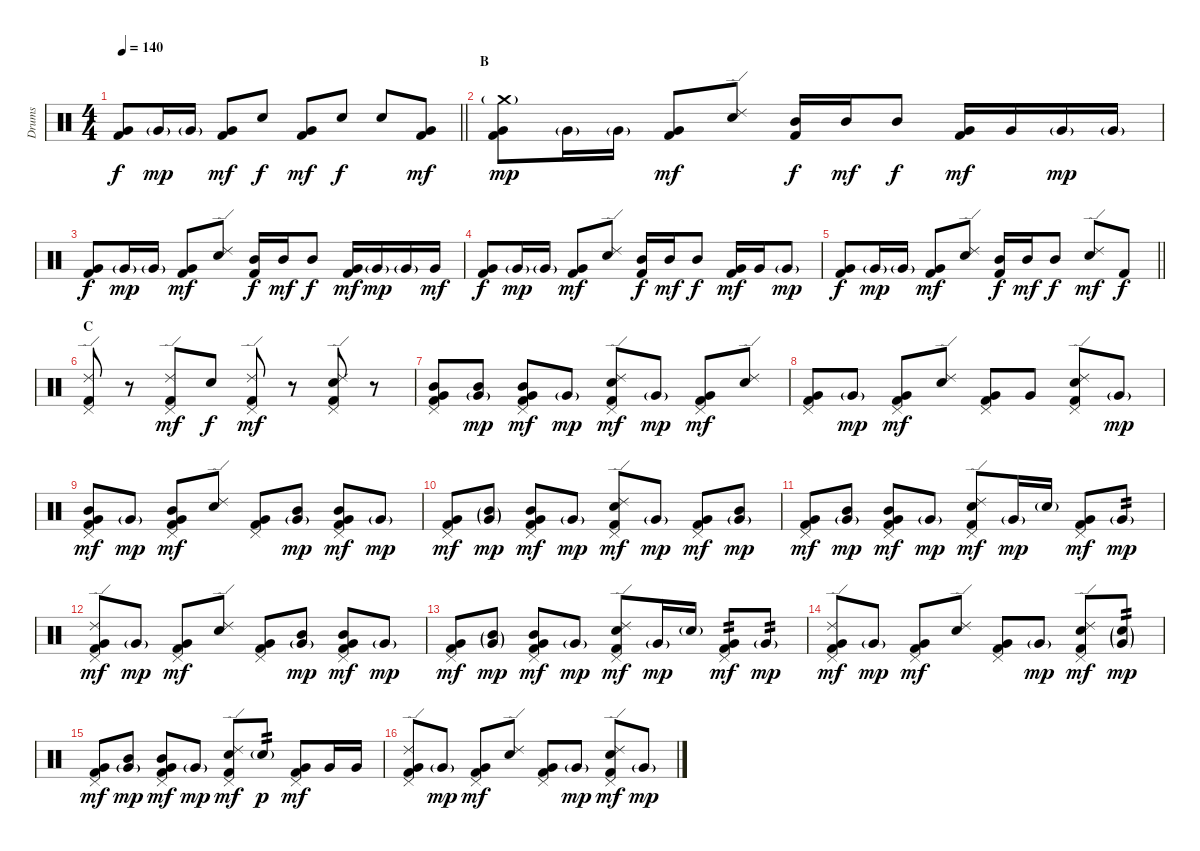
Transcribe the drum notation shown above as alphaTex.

\track ("Drums" "Drums") {instrument percussion}
\staff {score}
\articulation defaults
\ts (4 4)
\tempo 140
\clef neutral
\barLineRight lightlight
\ks c
("Very Low Tom (hit)" "Kick (hit) 2").8{dy f} "Very Low Tom (hit)"{g}.16{dy mp} "Very Low Tom (hit)"{g}.16 ("Very Low Tom (hit)" "Kick (hit) 2").8{dy mf} "Snare (hit) 2".8{dy f} ("Very Low Tom (hit)" "Kick (hit) 2").8{dy mf} "Snare (hit) 2".8{dy f} "Snare (hit) 2".8 ("Very Low Tom (hit)" "Kick (hit) 2").8{dy mf} |
\section ("" "B")
("Crash medium (hit)"{g} "Very Low Tom (hit)" "Kick (hit) 2").8{dy mp} "Very Low Tom (hit)"{g}.16 "Very Low Tom (hit)"{g}.16 ("Very Low Tom (hit)" "Kick (hit) 2").8{dy mf} ("Ride (edge) 2" "Snare (hit) 2").8 ("Mid Tom (hit)" "Kick (hit) 2").16{dy f} "Mid Tom (hit)".16{dy mf} "Mid Tom (hit)".8{dy f} ("Very Low Tom (hit)" "Kick (hit) 2").16{dy mf} "Very Low Tom (hit)".16 "Very Low Tom (hit)"{g}.16{dy mp} "Very Low Tom (hit)"{g}.16 |
("Very Low Tom (hit)" "Kick (hit) 2").8{dy f} "Very Low Tom (hit)"{g}.16{dy mp} "Very Low Tom (hit)"{g}.16 ("Very Low Tom (hit)" "Kick (hit) 2").8{dy mf} ("Ride (edge) 2" "Snare (hit) 2").8 ("Mid Tom (hit)" "Kick (hit) 2").16{dy f} "Mid Tom (hit)".16{dy mf} "Mid Tom (hit)".8{dy f} ("Very Low Tom (hit)" "Kick (hit) 2").16{dy mf} "Very Low Tom (hit)"{g}.16{dy mp} "Very Low Tom (hit)"{g}.16 "Very Low Tom (hit)".16{dy mf} |
("Very Low Tom (hit)" "Kick (hit) 2").8{dy f} "Very Low Tom (hit)"{g}.16{dy mp} "Very Low Tom (hit)"{g}.16 ("Very Low Tom (hit)" "Kick (hit) 2").8{dy mf} ("Ride (edge) 2" "Snare (hit) 2").8 ("Mid Tom (hit)" "Kick (hit) 2").16{dy f} "Mid Tom (hit)".16{dy mf} "Mid Tom (hit)".8{dy f} ("Very Low Tom (hit)" "Kick (hit) 2").16{dy mf} "Very Low Tom (hit)".16 "Very Low Tom (hit)"{g}.8{dy mp} |
\barLineRight lightlight
("Very Low Tom (hit)" "Kick (hit) 2").8{dy f} "Very Low Tom (hit)"{g}.16{dy mp} "Very Low Tom (hit)"{g}.16 ("Very Low Tom (hit)" "Kick (hit) 2").8{dy mf} ("Ride (edge) 2" "Snare (hit) 2").8 ("Mid Tom (hit)" "Kick (hit) 2").16{dy f} "Mid Tom (hit)".16{dy mf} "Mid Tom (hit)".8{dy f} ("Ride (edge) 2" "Snare (hit) 2").8{dy mf} "Kick (hit) 2".8{dy f} |
\section ("" "C")
("Ride (edge) 2" "Pedal Hi-Hat (hit)" "Kick (hit) 2").8 r.8 ("Ride (edge) 2" "Pedal Hi-Hat (hit)" "Kick (hit) 2").8{dy mf} "Snare (hit) 2".8{dy f} ("Ride (edge) 2" "Pedal Hi-Hat (hit)" "Kick (hit) 2").8{dy mf} r.8 ("Ride (edge) 2" "Pedal Hi-Hat (hit)" "Snare (hit) 2" "Kick (hit) 2").8 r.8 |
("Pedal Hi-Hat (hit)" "Mid Tom (hit)" "Very Low Tom (hit)" "Kick (hit) 2").8 ("Mid Tom (hit)" "Very Low Tom (hit)"{g}).8{dy mp} ("Pedal Hi-Hat (hit)" "Mid Tom (hit)" "Very Low Tom (hit)" "Kick (hit) 2").8{dy mf} "Very Low Tom (hit)"{g}.8{dy mp} ("Ride (edge) 2" "Pedal Hi-Hat (hit)" "Snare (hit) 2" "Kick (hit) 2").8{dy mf} "Very Low Tom (hit)"{g}.8{dy mp} ("Pedal Hi-Hat (hit)" "Very Low Tom (hit)" "Kick (hit) 2").8{dy mf} ("Ride (edge) 2" "Snare (hit) 2").8 |
("Pedal Hi-Hat (hit)" "Very Low Tom (hit)" "Kick (hit) 2").8 "Very Low Tom (hit)"{g}.8{dy mp} ("Pedal Hi-Hat (hit)" "Very Low Tom (hit)" "Kick (hit) 2").8{dy mf} ("Ride (edge) 2" "Snare (hit) 2").8 ("Pedal Hi-Hat (hit)" "Very Low Tom (hit)" "Kick (hit) 2").8 "Very Low Tom (hit)".8 ("Ride (edge) 2" "Pedal Hi-Hat (hit)" "Snare (hit) 2" "Kick (hit) 2").8 "Very Low Tom (hit)"{g}.8{dy mp} |
("Pedal Hi-Hat (hit)" "Mid Tom (hit)" "Very Low Tom (hit)" "Kick (hit) 2").8{dy mf} "Very Low Tom (hit)"{g}.8{dy mp} ("Pedal Hi-Hat (hit)" "Mid Tom (hit)" "Very Low Tom (hit)" "Kick (hit) 2").8{dy mf} ("Ride (edge) 2" "Snare (hit) 2").8 ("Pedal Hi-Hat (hit)" "Very Low Tom (hit)" "Kick (hit) 2").8 ("Mid Tom (hit)" "Very Low Tom (hit)"{g}).8{dy mp} ("Pedal Hi-Hat (hit)" "Mid Tom (hit)" "Very Low Tom (hit)" "Kick (hit) 2").8{dy mf} "Very Low Tom (hit)"{g}.8{dy mp} |
("Pedal Hi-Hat (hit)" "Very Low Tom (hit)" "Kick (hit) 2").8{dy mf} ("Mid Tom (hit)"{g} "Very Low Tom (hit)"{g}).8{dy mp} ("Pedal Hi-Hat (hit)" "Mid Tom (hit)" "Very Low Tom (hit)" "Kick (hit) 2").8{dy mf} "Very Low Tom (hit)"{g}.8{dy mp} ("Ride (edge) 2" "Pedal Hi-Hat (hit)" "Snare (hit) 2" "Kick (hit) 2").8{dy mf} "Very Low Tom (hit)"{g}.8{dy mp} ("Pedal Hi-Hat (hit)" "Very Low Tom (hit)" "Kick (hit) 2").8{dy mf} ("Mid Tom (hit)" "Very Low Tom (hit)"{g}).8{dy mp} |
("Pedal Hi-Hat (hit)" "Very Low Tom (hit)" "Kick (hit) 2").8{dy mf} ("Mid Tom (hit)" "Very Low Tom (hit)"{g}).8{dy mp} ("Pedal Hi-Hat (hit)" "Mid Tom (hit)" "Very Low Tom (hit)" "Kick (hit) 2").8{dy mf} "Very Low Tom (hit)"{g}.8{dy mp} ("Ride (edge) 2" "Pedal Hi-Hat (hit)" "Snare (hit) 2" "Kick (hit) 2").8{dy mf} "Very Low Tom (hit)"{g}.16{dy mp} "Snare (hit) 2"{g}.16 ("Pedal Hi-Hat (hit)" "Very Low Tom (hit)" "Kick (hit) 2").8{dy mf} "Very Low Tom (hit)"{g}.8{tp 2 dy mp} |
("Ride (edge) 2" "Pedal Hi-Hat (hit)" "Very Low Tom (hit)" "Kick (hit) 2").8{dy mf} "Very Low Tom (hit)"{g}.8{dy mp} ("Pedal Hi-Hat (hit)" "Very Low Tom (hit)" "Kick (hit) 2").8{dy mf} ("Ride (edge) 2" "Snare (hit) 2").8 ("Pedal Hi-Hat (hit)" "Very Low Tom (hit)" "Kick (hit) 2").8 ("Mid Tom (hit)" "Very Low Tom (hit)"{g}).8{dy mp} ("Pedal Hi-Hat (hit)" "Mid Tom (hit)" "Very Low Tom (hit)" "Kick (hit) 2").8{dy mf} "Very Low Tom (hit)"{g}.8{dy mp} |
("Pedal Hi-Hat (hit)" "Very Low Tom (hit)" "Kick (hit) 2").8{dy mf} ("Mid Tom (hit)"{g} "Very Low Tom (hit)"{g}).8{dy mp} ("Pedal Hi-Hat (hit)" "Mid Tom (hit)" "Very Low Tom (hit)" "Kick (hit) 2").8{dy mf} "Very Low Tom (hit)"{g}.8{dy mp} ("Ride (edge) 2" "Pedal Hi-Hat (hit)" "Snare (hit) 2" "Kick (hit) 2").8{dy mf} "Very Low Tom (hit)"{g}.16{dy mp} "Snare (hit) 2"{g}.16 ("Pedal Hi-Hat (hit)" "Very Low Tom (hit)" "Kick (hit) 2").8{tp 2 dy mf} "Very Low Tom (hit)"{g}.8{tp 2 dy mp} |
("Ride (edge) 2" "Pedal Hi-Hat (hit)" "Very Low Tom (hit)" "Kick (hit) 2").8{dy mf} "Very Low Tom (hit)"{g}.8{dy mp} ("Pedal Hi-Hat (hit)" "Very Low Tom (hit)" "Kick (hit) 2").8{dy mf} ("Ride (edge) 2" "Snare (hit) 2").8 ("Pedal Hi-Hat (hit)" "Very Low Tom (hit)" "Kick (hit) 2").8 "Very Low Tom (hit)"{g}.8{dy mp} ("Ride (edge) 2" "Pedal Hi-Hat (hit)" "Snare (hit) 2" "Kick (hit) 2").8{dy mf} ("Snare (hit) 2"{g} "Very Low Tom (hit)"{g}).8{tp 2 dy mp} |
("Pedal Hi-Hat (hit)" "Very Low Tom (hit)" "Kick (hit) 2").8{dy mf} ("Mid Tom (hit)" "Very Low Tom (hit)"{g}).8{dy mp} ("Pedal Hi-Hat (hit)" "Mid Tom (hit)" "Very Low Tom (hit)" "Kick (hit) 2").8{dy mf} "Very Low Tom (hit)"{g}.8{dy mp} ("Ride (edge) 2" "Pedal Hi-Hat (hit)" "Snare (hit) 2" "Kick (hit) 2").8{dy mf} "Snare (hit) 2"{g}.8{tp 2 dy p} ("Pedal Hi-Hat (hit)" "Very Low Tom (hit)" "Kick (hit) 2").8{dy mf} "Very Low Tom (hit)".16 "Very Low Tom (hit)".16 |
("Ride (edge) 2" "Pedal Hi-Hat (hit)" "Very Low Tom (hit)" "Kick (hit) 2").8 "Very Low Tom (hit)"{g}.8{dy mp} ("Pedal Hi-Hat (hit)" "Very Low Tom (hit)" "Kick (hit) 2").8{dy mf} ("Ride (edge) 2" "Snare (hit) 2").8 ("Pedal Hi-Hat (hit)" "Very Low Tom (hit)" "Kick (hit) 2").8 "Very Low Tom (hit)"{g}.8{dy mp} ("Ride (edge) 2" "Pedal Hi-Hat (hit)" "Snare (hit) 2" "Kick (hit) 2").8{dy mf} "Very Low Tom (hit)"{g}.8{dy mp}
